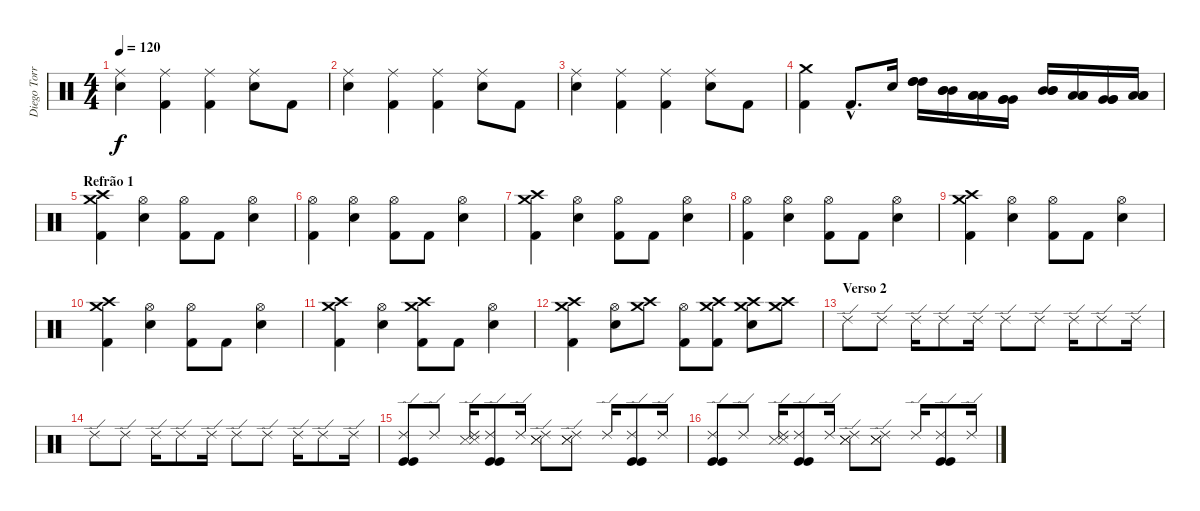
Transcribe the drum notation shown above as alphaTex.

\track ("Diego Torres [Bateria]" "Diego Torr") {instrument percussion}
\staff {score}
\articulation defaults
\ts (4 4)
\tempo 120
\clef neutral
\ks c
("Ride (middle)" "Electric Snare (hit)").4{dy f} ("Ride (middle)" "Kick (hit) 2").4 ("Ride (middle)" "Kick (hit) 2").4 ("Ride (middle)" "Electric Snare (hit)").8 "Kick (hit) 2".8 |
("Ride (middle)" "Electric Snare (hit)").4 ("Ride (middle)" "Kick (hit) 2").4 ("Ride (middle)" "Kick (hit) 2").4 ("Ride (middle)" "Electric Snare (hit)").8 "Kick (hit) 2".8 |
("Ride (middle)" "Electric Snare (hit)").4 ("Ride (middle)" "Kick (hit) 2").4 ("Ride (middle)" "Kick (hit) 2").4 ("Ride (middle)" "Electric Snare (hit)").8 "Kick (hit) 2".8 |
("Crash medium (hit)" "Kick (hit) 2").4 "Kick (hit) 2"{hac}.8{d} "Electric Snare (hit)".16 ("High Tom (hit)" "High Tom (hit)" "High Tom (hit)").16 ("Mid Tom (hit)" "Mid Tom (hit)" "Mid Tom (hit)").16 ("Low Tom (hit)" "Low Tom (hit)" "Low Tom (hit)").16 ("Very Low Tom (hit)" "Very Low Tom (hit)" "Very Low Tom (hit)").16 ("Mid Tom (hit)" "Mid Tom (hit)" "Mid Tom (hit)").16 ("Low Tom (hit)" "Low Tom (hit)" "Low Tom (hit)").16 ("Very Low Tom (hit)" "Very Low Tom (hit)" "Very Low Tom (hit)").16 ("Low Floor Tom (hit)" "Low Floor Tom (hit)" "Low Floor Tom (hit)").16 |
\section ("" "Refrão 1")
("Crash high (hit)" "Crash medium (hit)" "Kick (hit) 2").4 ("Hi-Hat (open)" "Electric Snare (hit)").4 ("Hi-Hat (open)" "Kick (hit) 2").8 "Kick (hit) 2".8 ("Hi-Hat (open)" "Electric Snare (hit)").4 |
("Hi-Hat (open)" "Kick (hit) 2").4 ("Hi-Hat (open)" "Electric Snare (hit)").4 ("Hi-Hat (open)" "Kick (hit) 2").8 "Kick (hit) 2".8 ("Hi-Hat (open)" "Electric Snare (hit)").4 |
("Crash high (hit)" "Crash medium (hit)" "Kick (hit) 2").4 ("Hi-Hat (open)" "Electric Snare (hit)").4 ("Hi-Hat (open)" "Kick (hit) 2").8 "Kick (hit) 2".8 ("Hi-Hat (open)" "Electric Snare (hit)").4 |
("Hi-Hat (open)" "Kick (hit) 2").4 ("Hi-Hat (open)" "Electric Snare (hit)").4 ("Hi-Hat (open)" "Kick (hit) 2").8 "Kick (hit) 2".8 ("Hi-Hat (open)" "Electric Snare (hit)").4 |
("Crash high (hit)" "Crash medium (hit)" "Kick (hit) 2").4 ("Hi-Hat (open)" "Electric Snare (hit)").4 ("Hi-Hat (open)" "Kick (hit) 2").8 "Kick (hit) 2".8 ("Hi-Hat (open)" "Electric Snare (hit)").4 |
("Crash high (hit)" "Crash medium (hit)" "Kick (hit) 2").4 ("Hi-Hat (open)" "Electric Snare (hit)").4 ("Hi-Hat (open)" "Kick (hit) 2").8 "Kick (hit) 2".8 ("Hi-Hat (open)" "Electric Snare (hit)").4 |
("Crash high (hit)" "Crash medium (hit)" "Kick (hit) 2").4 ("Hi-Hat (open)" "Electric Snare (hit)").4 ("Crash high (hit)" "Crash medium (hit)" "Kick (hit) 2").8 "Kick (hit) 2".8 ("Hi-Hat (open)" "Electric Snare (hit)").4 |
("Crash high (hit)" "Crash medium (hit)" "Kick (hit) 2").4 ("Hi-Hat (open)" "Electric Snare (hit)").8 ("Crash high (hit)" "Crash medium (hit)").8 ("Hi-Hat (open)" "Kick (hit) 2").8 ("Crash high (hit)" "Crash medium (hit)" "Kick (hit) 2").8 ("Crash high (hit)" "Crash medium (hit)" "Electric Snare (hit)").8 ("Crash high (hit)" "Crash medium (hit)").8 |
\section ("" "Verso 2")
"Ride (edge) 2".8 "Ride (edge) 2".8 "Ride (edge) 2".16 "Ride (edge) 2".8 "Ride (edge) 2".16 "Ride (edge) 2".8 "Ride (edge) 2".8 "Ride (edge) 2".16 "Ride (edge) 2".8 "Ride (edge) 2".16 |
"Ride (edge) 2".8 "Ride (edge) 2".8 "Ride (edge) 2".16 "Ride (edge) 2".8 "Ride (edge) 2".16 "Ride (edge) 2".8 "Ride (edge) 2".8 "Ride (edge) 2".16 "Ride (edge) 2".8 "Ride (edge) 2".16 |
("Ride (edge) 2" "Kick (hit)" "Kick (hit)").8 "Ride (edge) 2".8 ("Ride (edge) 2" "Snare (side stick) 3" "Snare (side stick) 3").16 ("Ride (edge) 2" "Kick (hit)" "Kick (hit)").8 "Ride (edge) 2".16 ("Ride (edge) 2" "Snare (side stick) 3" "Snare (side stick) 3").8 ("Ride (edge) 2" "Snare (side stick) 3" "Snare (side stick) 3").8 "Ride (edge) 2".16 ("Ride (edge) 2" "Kick (hit)" "Kick (hit)").8 "Ride (edge) 2".16 |
("Ride (edge) 2" "Kick (hit)" "Kick (hit)").8 "Ride (edge) 2".8 ("Ride (edge) 2" "Snare (side stick) 3" "Snare (side stick) 3").16 ("Ride (edge) 2" "Kick (hit)" "Kick (hit)").8 "Ride (edge) 2".16 ("Ride (edge) 2" "Snare (side stick) 3" "Snare (side stick) 3").8 ("Ride (edge) 2" "Snare (side stick) 3" "Snare (side stick) 3").8 "Ride (edge) 2".16 ("Ride (edge) 2" "Kick (hit)" "Kick (hit)").8 "Ride (edge) 2".16
